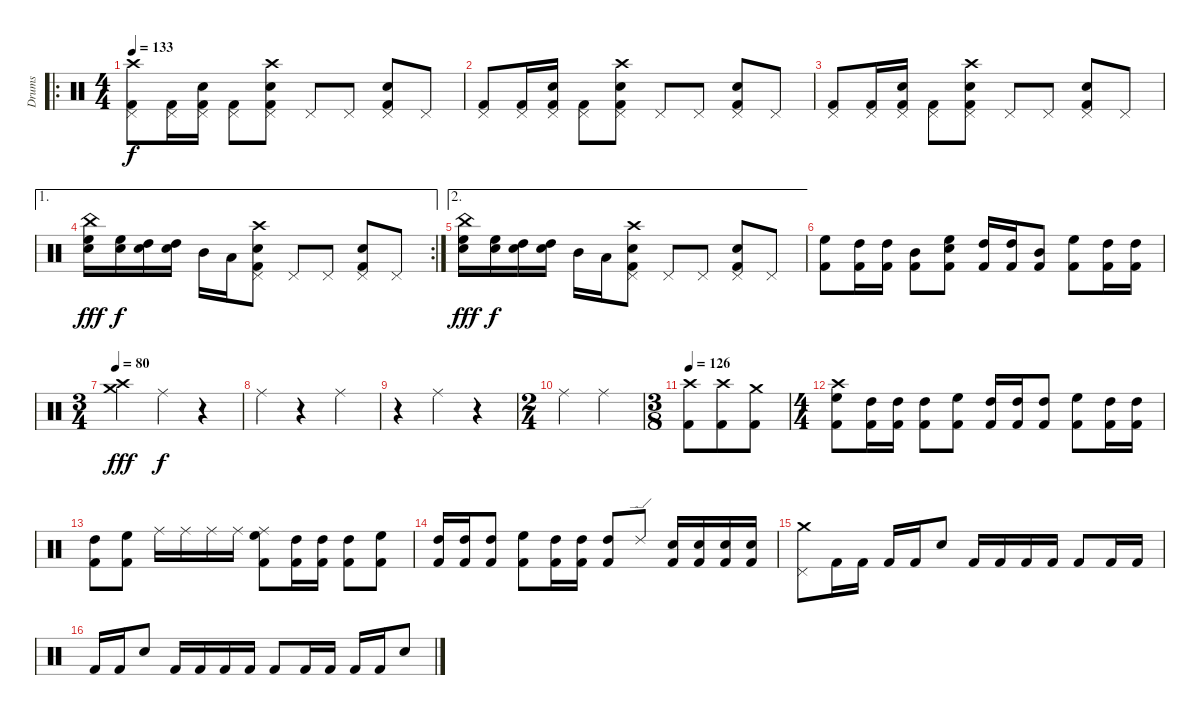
\track ("Drums" "Drums") {instrument percussion}
\staff {score}
\articulation defaults
\ro
\ts (4 4)
\tempo 133
\clef neutral
\ks c
("Crash high (hit)" "Kick (hit) 2" "Pedal Hi-Hat (hit)").8{dy f} ("Kick (hit) 2" "Pedal Hi-Hat (hit)").16 ("Electric Snare (hit)" "Kick (hit) 2" "Pedal Hi-Hat (hit)").16 ("Kick (hit) 2" "Pedal Hi-Hat (hit)").8 ("Crash high (hit)" "Electric Snare (hit)" "Kick (hit) 2" "Pedal Hi-Hat (hit)").8 "Pedal Hi-Hat (hit)".8 "Pedal Hi-Hat (hit)".8 ("Electric Snare (hit)" "Kick (hit) 2" "Pedal Hi-Hat (hit)").8 "Pedal Hi-Hat (hit)".8 |
("Kick (hit) 2" "Pedal Hi-Hat (hit)").8 ("Kick (hit) 2" "Pedal Hi-Hat (hit)").16 ("Electric Snare (hit)" "Kick (hit) 2" "Pedal Hi-Hat (hit)").16 ("Kick (hit) 2" "Pedal Hi-Hat (hit)").8 ("Crash high (hit)" "Electric Snare (hit)" "Kick (hit) 2" "Pedal Hi-Hat (hit)").8 "Pedal Hi-Hat (hit)".8 "Pedal Hi-Hat (hit)".8 ("Electric Snare (hit)" "Kick (hit) 2" "Pedal Hi-Hat (hit)").8 "Pedal Hi-Hat (hit)".8 |
("Kick (hit) 2" "Pedal Hi-Hat (hit)").8 ("Kick (hit) 2" "Pedal Hi-Hat (hit)").16 ("Electric Snare (hit)" "Kick (hit) 2" "Pedal Hi-Hat (hit)").16 ("Kick (hit) 2" "Pedal Hi-Hat (hit)").8 ("Crash high (hit)" "Electric Snare (hit)" "Kick (hit) 2" "Pedal Hi-Hat (hit)").8 "Pedal Hi-Hat (hit)".8 "Pedal Hi-Hat (hit)".8 ("Electric Snare (hit)" "Kick (hit) 2" "Pedal Hi-Hat (hit)").8 "Pedal Hi-Hat (hit)".8 |
\ae 1
\rc 2
("High Floor Tom (hit)" "Electric Snare (hit)" "China (hit)").16{dy fff} ("High Floor Tom (hit)" "Electric Snare (hit)").16{dy f} ("High Tom (hit)" "Electric Snare (hit)").16 ("High Tom (hit)" "Electric Snare (hit)").16 "Mid Tom (hit)".16 "Low Tom (hit)".16 ("Crash high (hit)" "Electric Snare (hit)" "Kick (hit) 2" "Pedal Hi-Hat (hit)").8 "Pedal Hi-Hat (hit)".8 "Pedal Hi-Hat (hit)".8 ("Electric Snare (hit)" "Kick (hit) 2" "Pedal Hi-Hat (hit)").8 "Pedal Hi-Hat (hit)".8 |
\ae 2
("High Floor Tom (hit)" "Electric Snare (hit)" "China (hit)").16{dy fff} ("High Floor Tom (hit)" "Electric Snare (hit)").16{dy f} ("High Tom (hit)" "Electric Snare (hit)").16 ("High Tom (hit)" "Electric Snare (hit)").16 "Mid Tom (hit)".16 "Low Tom (hit)".16 ("Crash high (hit)" "Electric Snare (hit)" "Kick (hit) 2" "Pedal Hi-Hat (hit)").8 "Pedal Hi-Hat (hit)".8 "Pedal Hi-Hat (hit)".8 ("Electric Snare (hit)" "Kick (hit) 2" "Pedal Hi-Hat (hit)").8 "Pedal Hi-Hat (hit)".8 |
("High Floor Tom (hit)" "Kick (hit) 2").8 ("High Tom (hit)" "Kick (hit) 2").16 ("High Tom (hit)" "Kick (hit) 2").16 ("Mid Tom (hit)" "Kick (hit) 2").8 ("Electric Snare (hit)" "High Floor Tom (hit)" "Kick (hit) 2").8 ("High Tom (hit)" "Kick (hit) 2").16 ("High Tom (hit)" "Kick (hit) 2").16 ("Mid Tom (hit)" "Kick (hit) 2").8 ("High Floor Tom (hit)" "Kick (hit) 2").8 ("High Tom (hit)" "Kick (hit) 2").16 ("High Tom (hit)" "Kick (hit) 2").16 |
\ts (3 4)
\tempo 80
("Crash medium (hit)" "Crash high (hit)").4{dy fff} "Ride (middle)".4{dy f} r.4 |
"Ride (middle)".4 r.4 "Ride (middle)".4 |
r.4 "Ride (middle)".4 r.4 |
\ts (2 4)
"Ride (middle)".4 "Ride (middle)".4 |
\ts (3 8)
\tempo 126
("Crash high (hit)" "Kick (hit) 2").8 ("Crash high (hit)" "Kick (hit) 2").8 ("Crash medium (hit)" "Kick (hit) 2").8 |
\ts (4 4)
("Crash high (hit)" "High Floor Tom (hit)" "Kick (hit) 2").8 ("High Tom (hit)" "Kick (hit) 2").16 ("High Tom (hit)" "Kick (hit) 2").16 ("High Tom (hit)" "Kick (hit) 2").8 ("High Floor Tom (hit)" "Kick (hit) 2").8 ("High Tom (hit)" "Kick (hit) 2").16 ("High Tom (hit)" "Kick (hit) 2").16 ("High Tom (hit)" "Kick (hit) 2").8 ("High Floor Tom (hit)" "Kick (hit) 2").8 ("High Tom (hit)" "Kick (hit) 2").16 ("High Tom (hit)" "Kick (hit) 2").16 |
("High Tom (hit)" "Kick (hit) 2").8 ("High Floor Tom (hit)" "Kick (hit) 2").8 "Ride (middle)".16 "Ride (middle)".16 "Ride (middle)".16 "Ride (middle)".16 ("Ride (middle)" "High Floor Tom (hit)" "Kick (hit) 2").8 ("High Tom (hit)" "Kick (hit) 2").16 ("High Tom (hit)" "Kick (hit) 2").16 ("High Tom (hit)" "Kick (hit) 2").8 ("High Floor Tom (hit)" "Kick (hit) 2").8 |
("High Tom (hit)" "Kick (hit) 2").16 ("High Tom (hit)" "Kick (hit) 2").16 ("High Tom (hit)" "Kick (hit) 2").8 ("High Floor Tom (hit)" "Kick (hit) 2").8 ("High Tom (hit)" "Kick (hit) 2").16 ("High Tom (hit)" "Kick (hit) 2").16 ("High Tom (hit)" "Kick (hit) 2").8 "Ride (edge) 2".8 ("Electric Snare (hit)" "Kick (hit) 2").16 ("Electric Snare (hit)" "Kick (hit) 2").16 ("Electric Snare (hit)" "Kick (hit) 2").16 ("Electric Snare (hit)" "Kick (hit) 2").16 |
("Crash medium (hit)" "Pedal Hi-Hat (hit)").8 "Kick (hit) 2".16 "Kick (hit) 2".16 "Kick (hit) 2".16 "Kick (hit) 2".16 "Electric Snare (hit)".8 "Kick (hit) 2".16 "Kick (hit) 2".16 "Kick (hit) 2".16 "Kick (hit) 2".16 "Kick (hit) 2".8 "Kick (hit) 2".16 "Kick (hit) 2".16 |
"Kick (hit) 2".16 "Kick (hit) 2".16 "Electric Snare (hit)".8 "Kick (hit) 2".16 "Kick (hit) 2".16 "Kick (hit) 2".16 "Kick (hit) 2".16 "Kick (hit) 2".8 "Kick (hit) 2".16 "Kick (hit) 2".16 "Kick (hit) 2".16 "Kick (hit) 2".16 "Electric Snare (hit)".8
